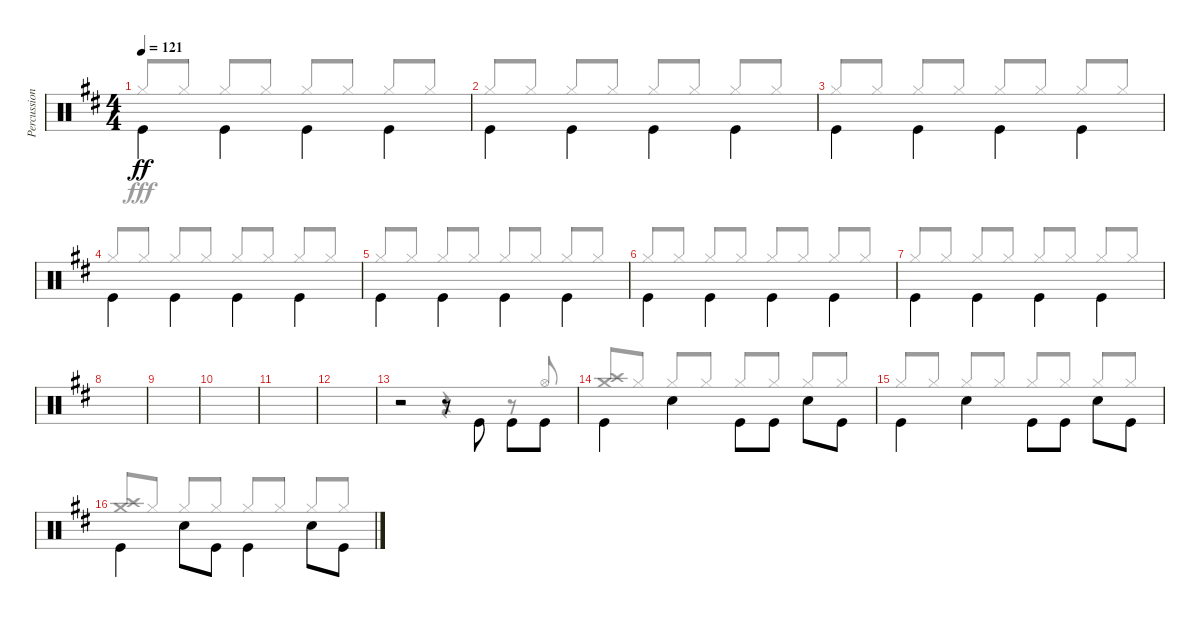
\track ("Percussions" "Percussion") {instrument percussion}
\staff {score}
\articulation defaults
\voice
\ts (4 4)
\tempo 121
\clef neutral
\ks d "Kick (hit)".4{dy ff beam Down} "Kick (hit)".4{beam Down} "Kick (hit)".4{beam Down} "Kick (hit)".4{beam Down}
|
"Kick (hit)".4{beam Down} "Kick (hit)".4{beam Down} "Kick (hit)".4{beam Down} "Kick (hit)".4{beam Down} |
"Kick (hit)".4{beam Down} "Kick (hit)".4{beam Down} "Kick (hit)".4{beam Down} "Kick (hit)".4{beam Down} |
"Kick (hit)".4{beam Down} "Kick (hit)".4{beam Down} "Kick (hit)".4{beam Down} "Kick (hit)".4{beam Down} |
"Kick (hit)".4{beam Down} "Kick (hit)".4{beam Down} "Kick (hit)".4{beam Down} "Kick (hit)".4{beam Down} |
"Kick (hit)".4{beam Down} "Kick (hit)".4{beam Down} "Kick (hit)".4{beam Down} "Kick (hit)".4{beam Down} |
"Kick (hit)".4{beam Down} "Kick (hit)".4{beam Down} "Kick (hit)".4{beam Down} "Kick (hit)".4{beam Down} |
|
|
|
|
|
r.2 r.8 "Kick (hit)".8{beam Down} "Kick (hit)".8{beam Down} "Kick (hit)".8{beam Down} |
"Kick (hit)".4{beam Down} "Snare (hit) 2".4{beam Down} "Kick (hit)".8{beam Down} "Kick (hit)".8{beam Down} "Snare (hit) 2".8{beam Down} "Kick (hit)".8{beam Down} |
"Kick (hit)".4{beam Down} "Snare (hit) 2".4{beam Down} "Kick (hit)".8{beam Down} "Kick (hit)".8{beam Down} "Snare (hit) 2".8{beam Down} "Kick (hit)".8{beam Down} |
"Kick (hit)".4{beam Down} "Snare (hit) 2".8{beam Down} "Kick (hit)".8{beam Down} "Kick (hit)".4{beam Down} "Snare (hit) 2".8{beam Down} "Kick (hit)".8{beam Down}
\voice
\clef neutral
\ottava regular
\simile none
\ks d "Hi-Hat (closed)".8{dy fff beam Up} "Hi-Hat (closed)".8{beam Up} "Hi-Hat (closed)".8{beam Up} "Hi-Hat (closed)".8{beam Up} "Hi-Hat (closed)".8{beam Up} "Hi-Hat (closed)".8{beam Up} "Hi-Hat (closed)".8{beam Up} "Hi-Hat (closed)".8{beam Up}
|
"Hi-Hat (closed)".8{beam Up} "Hi-Hat (closed)".8{beam Up} "Hi-Hat (closed)".8{beam Up} "Hi-Hat (closed)".8{beam Up} "Hi-Hat (closed)".8{beam Up} "Hi-Hat (closed)".8{beam Up} "Hi-Hat (closed)".8{beam Up} "Hi-Hat (closed)".8{beam Up} |
"Hi-Hat (closed)".8{beam Up} "Hi-Hat (closed)".8{beam Up} "Hi-Hat (closed)".8{beam Up} "Hi-Hat (closed)".8{beam Up} "Hi-Hat (closed)".8{beam Up} "Hi-Hat (closed)".8{beam Up} "Hi-Hat (closed)".8{beam Up} "Hi-Hat (closed)".8{beam Up} |
"Hi-Hat (closed)".8{beam Up} "Hi-Hat (closed)".8{beam Up} "Hi-Hat (closed)".8{beam Up} "Hi-Hat (closed)".8{beam Up} "Hi-Hat (closed)".8{beam Up} "Hi-Hat (closed)".8{beam Up} "Hi-Hat (closed)".8{beam Up} "Hi-Hat (closed)".8{beam Up} |
"Hi-Hat (closed)".8{beam Up} "Hi-Hat (closed)".8{beam Up} "Hi-Hat (closed)".8{beam Up} "Hi-Hat (closed)".8{beam Up} "Hi-Hat (closed)".8{beam Up} "Hi-Hat (closed)".8{beam Up} "Hi-Hat (closed)".8{beam Up} "Hi-Hat (closed)".8{beam Up} |
"Hi-Hat (closed)".8{beam Up} "Hi-Hat (closed)".8{beam Up} "Hi-Hat (closed)".8{beam Up} "Hi-Hat (closed)".8{beam Up} "Hi-Hat (closed)".8{beam Up} "Hi-Hat (closed)".8{beam Up} "Hi-Hat (closed)".8{beam Up} "Hi-Hat (closed)".8{beam Up} |
"Hi-Hat (closed)".8{beam Up} "Hi-Hat (closed)".8{beam Up} "Hi-Hat (closed)".8{beam Up} "Hi-Hat (closed)".8{beam Up} "Hi-Hat (closed)".8{beam Up} "Hi-Hat (closed)".8{beam Up} "Hi-Hat (closed)".8{beam Up} "Hi-Hat (closed)".8{beam Up} |
|
|
|
|
|
r.2 r.4 r.8 "Hi-Hat (open)".8{beam Up} |
("Crash medium (hit)" "Crash high (hit)").8{beam Up} "Hi-Hat (closed)".8 "Hi-Hat (closed)".8{beam Up} "Hi-Hat (closed)".8{beam Up} "Hi-Hat (closed)".8{beam Up} "Hi-Hat (closed)".8{beam Up} "Hi-Hat (closed)".8{beam Up} "Hi-Hat (closed)".8{beam Up} |
"Hi-Hat (closed)".8{beam Up} "Hi-Hat (closed)".8 "Hi-Hat (closed)".8{beam Up} "Hi-Hat (closed)".8{beam Up} "Hi-Hat (closed)".8{beam Up} "Hi-Hat (closed)".8{beam Up} "Hi-Hat (closed)".8{beam Up} "Hi-Hat (closed)".8{beam Up} |
("Crash medium (hit)" "Crash high (hit)").8{beam Up} "Hi-Hat (closed)".8 "Hi-Hat (closed)".8{beam Up} "Hi-Hat (closed)".8{beam Up} "Hi-Hat (closed)".8{beam Up} "Hi-Hat (closed)".8{beam Up} "Hi-Hat (closed)".8{beam Up} "Hi-Hat (closed)".8{beam Up}
